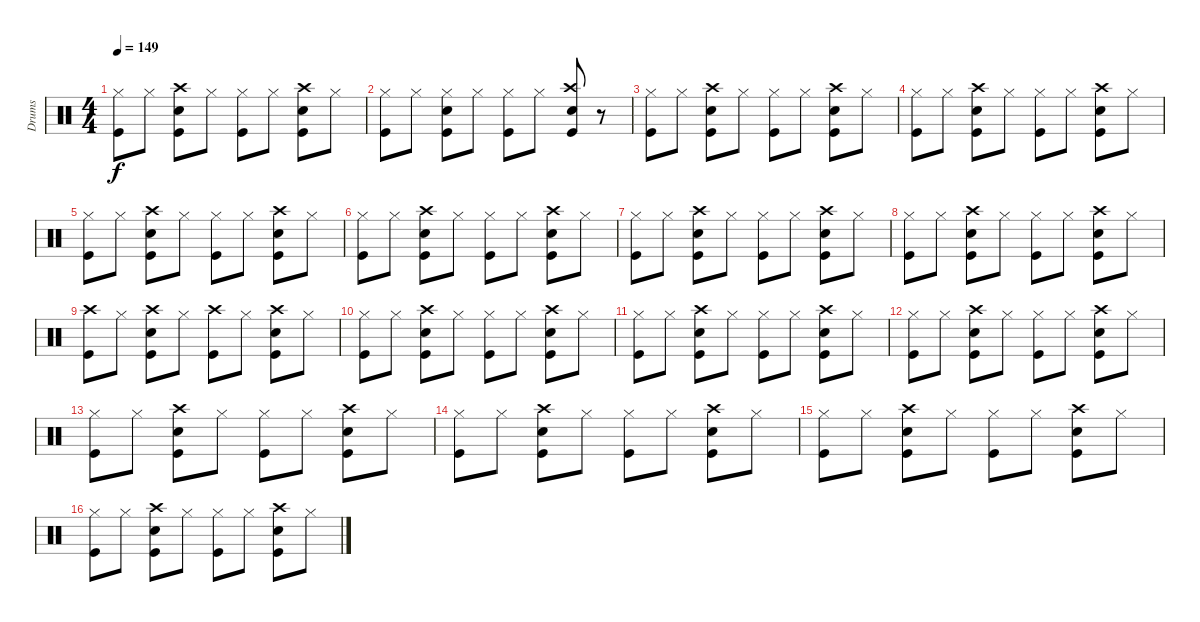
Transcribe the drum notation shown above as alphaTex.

\track ("Drums" "Drums") {instrument percussion}
\staff {score}
\articulation defaults
\ts (4 4)
\tempo 149
\clef neutral
\ks c
("Hi-Hat (closed)" "Kick (hit)").8{dy f} "Hi-Hat (closed)".8 ("Crash high (hit)" "Kick (hit)" "Snare (hit) 2").8 "Hi-Hat (closed)".8 ("Hi-Hat (closed)" "Kick (hit)").8 "Hi-Hat (closed)".8 ("Crash high (hit)" "Snare (hit) 2" "Kick (hit)").8 "Hi-Hat (closed)".8 |
("Hi-Hat (closed)" "Kick (hit)").8 "Hi-Hat (closed)".8 ("Hi-Hat (closed)" "Kick (hit)" "Snare (hit) 2").8 "Hi-Hat (closed)".8 ("Hi-Hat (closed)" "Kick (hit)").8 "Hi-Hat (closed)".8 ("Crash high (hit)" "Kick (hit)" "Snare (hit) 2").8 r.8 |
("Hi-Hat (closed)" "Kick (hit)").8 "Hi-Hat (closed)".8 ("Crash high (hit)" "Kick (hit)" "Snare (hit) 2").8 "Hi-Hat (closed)".8 ("Hi-Hat (closed)" "Kick (hit)").8 "Hi-Hat (closed)".8 ("Crash high (hit)" "Snare (hit) 2" "Kick (hit)").8 "Hi-Hat (closed)".8 |
("Hi-Hat (closed)" "Kick (hit)").8 "Hi-Hat (closed)".8 ("Crash high (hit)" "Kick (hit)" "Snare (hit) 2").8 "Hi-Hat (closed)".8 ("Hi-Hat (closed)" "Kick (hit)").8 "Hi-Hat (closed)".8 ("Crash high (hit)" "Snare (hit) 2" "Kick (hit)").8 "Hi-Hat (closed)".8 |
("Hi-Hat (closed)" "Kick (hit)").8 "Hi-Hat (closed)".8 ("Crash high (hit)" "Kick (hit)" "Snare (hit) 2").8 "Hi-Hat (closed)".8 ("Hi-Hat (closed)" "Kick (hit)").8 "Hi-Hat (closed)".8 ("Crash high (hit)" "Snare (hit) 2" "Kick (hit)").8 "Hi-Hat (closed)".8 |
("Hi-Hat (closed)" "Kick (hit)").8 "Hi-Hat (closed)".8 ("Crash high (hit)" "Kick (hit)" "Snare (hit) 2").8 "Hi-Hat (closed)".8 ("Hi-Hat (closed)" "Kick (hit)").8 "Hi-Hat (closed)".8 ("Crash high (hit)" "Snare (hit) 2" "Kick (hit)").8 "Hi-Hat (closed)".8 |
("Hi-Hat (closed)" "Kick (hit)").8 "Hi-Hat (closed)".8 ("Crash high (hit)" "Kick (hit)" "Snare (hit) 2").8 "Hi-Hat (closed)".8 ("Hi-Hat (closed)" "Kick (hit)").8 "Hi-Hat (closed)".8 ("Crash high (hit)" "Snare (hit) 2" "Kick (hit)").8 "Hi-Hat (closed)".8 |
("Hi-Hat (closed)" "Kick (hit)").8 "Hi-Hat (closed)".8 ("Crash high (hit)" "Kick (hit)" "Snare (hit) 2").8 "Hi-Hat (closed)".8 ("Hi-Hat (closed)" "Kick (hit)").8 "Hi-Hat (closed)".8 ("Crash high (hit)" "Snare (hit) 2" "Kick (hit)").8 "Hi-Hat (closed)".8 |
("Crash high (hit)" "Kick (hit)").8 "Hi-Hat (closed)".8 ("Crash high (hit)" "Snare (hit) 2" "Kick (hit)").8 "Hi-Hat (closed)".8 ("Crash high (hit)" "Kick (hit)").8 "Hi-Hat (closed)".8 ("Crash high (hit)" "Kick (hit)" "Snare (hit) 2").8 "Hi-Hat (closed)".8 |
("Hi-Hat (closed)" "Kick (hit)").8 "Hi-Hat (closed)".8 ("Crash high (hit)" "Kick (hit)" "Snare (hit) 2").8 "Hi-Hat (closed)".8 ("Hi-Hat (closed)" "Kick (hit)").8 "Hi-Hat (closed)".8 ("Crash high (hit)" "Snare (hit) 2" "Kick (hit)").8 "Hi-Hat (closed)".8 |
("Hi-Hat (closed)" "Kick (hit)").8 "Hi-Hat (closed)".8 ("Crash high (hit)" "Kick (hit)" "Snare (hit) 2").8 "Hi-Hat (closed)".8 ("Hi-Hat (closed)" "Kick (hit)").8 "Hi-Hat (closed)".8 ("Crash high (hit)" "Kick (hit)" "Snare (hit) 2").8 "Hi-Hat (closed)".8 |
("Hi-Hat (closed)" "Kick (hit)").8 "Hi-Hat (closed)".8 ("Crash high (hit)" "Kick (hit)" "Snare (hit) 2").8 "Hi-Hat (closed)".8 ("Kick (hit)" "Hi-Hat (closed)").8 "Hi-Hat (closed)".8 ("Crash high (hit)" "Kick (hit)" "Snare (hit) 2").8 "Hi-Hat (closed)".8 |
("Hi-Hat (closed)" "Kick (hit)").8 "Hi-Hat (closed)".8 ("Crash high (hit)" "Kick (hit)" "Snare (hit) 2").8 "Hi-Hat (closed)".8 ("Kick (hit)" "Hi-Hat (closed)").8 "Hi-Hat (closed)".8 ("Crash high (hit)" "Kick (hit)" "Snare (hit) 2").8 "Hi-Hat (closed)".8 |
("Hi-Hat (closed)" "Kick (hit)").8 "Hi-Hat (closed)".8 ("Crash high (hit)" "Kick (hit)" "Snare (hit) 2").8 "Hi-Hat (closed)".8 ("Kick (hit)" "Hi-Hat (closed)").8 "Hi-Hat (closed)".8 ("Crash high (hit)" "Kick (hit)" "Snare (hit) 2").8 "Hi-Hat (closed)".8 |
("Hi-Hat (closed)" "Kick (hit)").8 "Hi-Hat (closed)".8 ("Crash high (hit)" "Kick (hit)" "Snare (hit) 2").8 "Hi-Hat (closed)".8 ("Kick (hit)" "Hi-Hat (closed)").8 "Hi-Hat (closed)".8 ("Crash high (hit)" "Kick (hit)" "Snare (hit) 2").8 "Hi-Hat (closed)".8 |
("Hi-Hat (closed)" "Kick (hit)").8 "Hi-Hat (closed)".8 ("Crash high (hit)" "Kick (hit)" "Snare (hit) 2").8 "Hi-Hat (closed)".8 ("Kick (hit)" "Hi-Hat (closed)").8 "Hi-Hat (closed)".8 ("Crash high (hit)" "Kick (hit)" "Snare (hit) 2").8 "Hi-Hat (closed)".8
